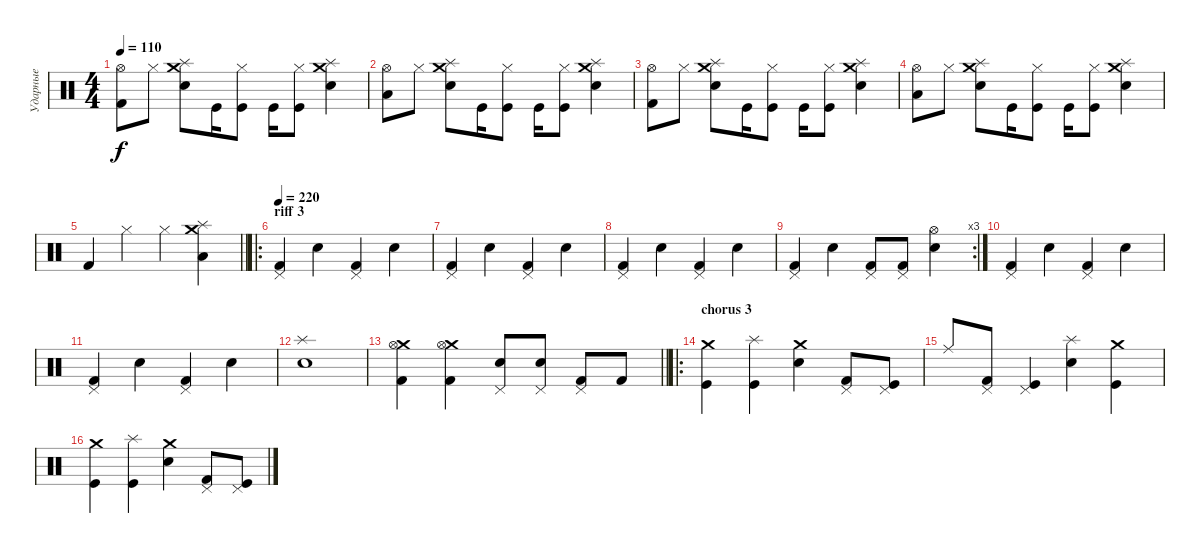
\track ("Ударные" "Ударные") {instrument percussion}
\staff
\articulation defaults
\ts (4 4)
\tempo 110
\clef neutral
\ks c
("Hi-Hat (open)" "Kick (hit) 2").8{dy f} "Hi-Hat (closed)".8 ("Crash medium (hit)" "Splash (hit)" "Electric Snare (hit)").8 "Kick (hit)".16 ("Hi-Hat (closed)" "Kick (hit)").8 "Kick (hit)".16 ("Hi-Hat (closed)" "Kick (hit)").8 ("Crash medium (hit)" "Splash (hit)" "Electric Snare (hit)").4 |
("Hi-Hat (open)" "Low Tom (hit)").8 "Hi-Hat (closed)".8 ("Crash medium (hit)" "Splash (hit)" "Electric Snare (hit)").8 "Kick (hit)".16 ("Hi-Hat (closed)" "Kick (hit)").8 "Kick (hit)".16 ("Hi-Hat (closed)" "Kick (hit)").8 ("Crash medium (hit)" "Splash (hit)" "Electric Snare (hit)").4 |
("Hi-Hat (open)" "Kick (hit) 2").8 "Hi-Hat (closed)".8 ("Crash medium (hit)" "Splash (hit)" "Electric Snare (hit)").8 "Kick (hit)".16 ("Hi-Hat (closed)" "Kick (hit)").8 "Kick (hit)".16 ("Hi-Hat (closed)" "Kick (hit)").8 ("Crash medium (hit)" "Splash (hit)" "Electric Snare (hit)").4 |
("Hi-Hat (open)" "Low Tom (hit)").8 "Hi-Hat (closed)".8 ("Crash medium (hit)" "Splash (hit)" "Electric Snare (hit)").8 "Kick (hit)".16 ("Hi-Hat (closed)" "Kick (hit)").8 "Kick (hit)".16 ("Hi-Hat (closed)" "Kick (hit)").8 ("Crash medium (hit)" "Splash (hit)" "Electric Snare (hit)").4 |
\barLineRight lightlight "Kick (hit) 2".4 "Hi-Hat (closed)".4 "Hi-Hat (closed)".4
("Crash medium (hit)" "Splash (hit)" "Low Tom (hit)").4 |
\ro
\section ("" "riff 3")
\tempo 220
("Pedal Hi-Hat (hit)" "Kick (hit) 2").4 "Electric Snare (hit)".4 ("Pedal Hi-Hat (hit)" "Kick (hit) 2").4 "Electric Snare (hit)".4 |
("Pedal Hi-Hat (hit)" "Kick (hit) 2").4 "Electric Snare (hit)".4 ("Pedal Hi-Hat (hit)" "Kick (hit) 2").4 "Electric Snare (hit)".4 |
("Pedal Hi-Hat (hit)" "Kick (hit) 2").4 "Electric Snare (hit)".4 ("Pedal Hi-Hat (hit)" "Kick (hit) 2").4 "Electric Snare (hit)".4 |
\rc 3
("Pedal Hi-Hat (hit)" "Kick (hit) 2").4 "Electric Snare (hit)".4 ("Pedal Hi-Hat (hit)" "Kick (hit) 2").8 ("Pedal Hi-Hat (hit)" "Kick (hit) 2").8 ("Hi-Hat (open)" "Electric Snare (hit)").4 |
("Pedal Hi-Hat (hit)" "Kick (hit) 2").4 "Electric Snare (hit)".4 ("Pedal Hi-Hat (hit)" "Kick (hit) 2").4 "Electric Snare (hit)".4 |
("Pedal Hi-Hat (hit)" "Kick (hit) 2").4 "Electric Snare (hit)".4 ("Pedal Hi-Hat (hit)" "Kick (hit) 2").4 "Electric Snare (hit)".4 |
("Splash (hit)" "Electric Snare (hit)").1 |
\barLineRight lightlight
("Crash medium (hit)" "Hi-Hat (open)" "Kick (hit) 2").4 ("Crash medium (hit)" "Hi-Hat (open)" "Kick (hit) 2").4 ("Pedal Hi-Hat (hit)" "Electric Snare (hit)").8 ("Pedal Hi-Hat (hit)" "Electric Snare (hit)").8 ("Pedal Hi-Hat (hit)" "Kick (hit) 2").8 "Kick (hit) 2".8 |
\ro
\section ("" "chorus 3")
("Crash medium (hit)" "Kick (hit)").4 ("Splash (hit)" "Kick (hit)").4 ("Crash medium (hit)" "Electric Snare (hit)").4 ("Pedal Hi-Hat (hit)" "Kick (hit) 2").8 ("Pedal Hi-Hat (hit)" "Kick (hit)").8 |
"Ride (middle)".8 ("Pedal Hi-Hat (hit)" "Kick (hit) 2").8 ("Pedal Hi-Hat (hit)" "Kick (hit)").4 ("Splash (hit)" "Electric Snare (hit)").4 ("Crash medium (hit)" "Kick (hit)").4 |
("Crash medium (hit)" "Kick (hit)").4 ("Splash (hit)" "Kick (hit)").4 ("Crash medium (hit)" "Electric Snare (hit)").4 ("Pedal Hi-Hat (hit)" "Kick (hit) 2").8 ("Pedal Hi-Hat (hit)" "Kick (hit)").8
